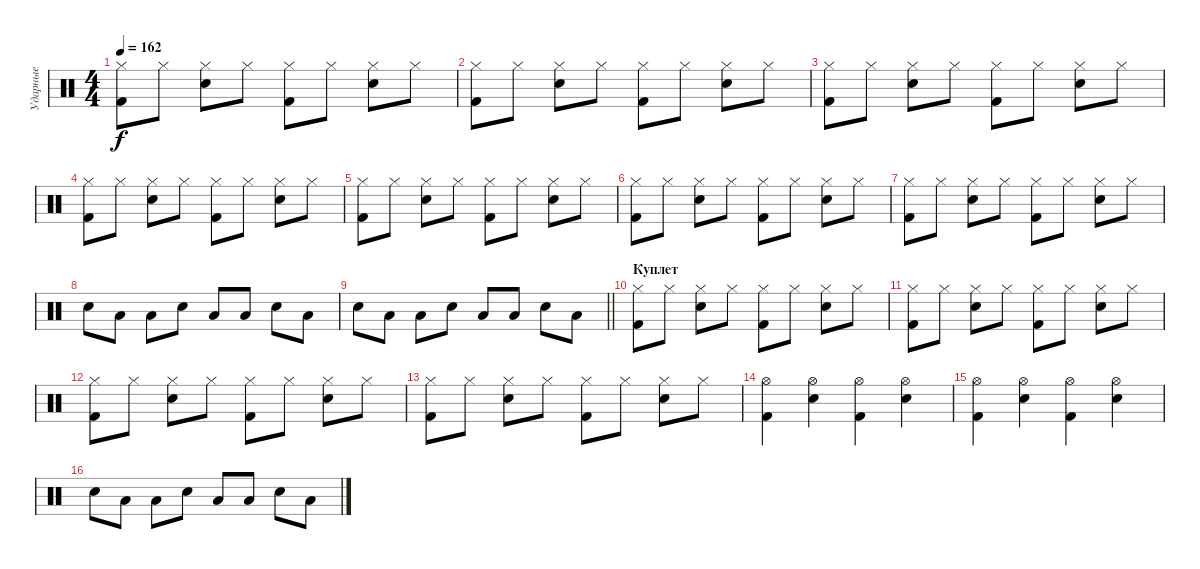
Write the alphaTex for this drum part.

\track ("Ударные" "Ударные") {instrument percussion}
\staff {score}
\articulation defaults
\ts (4 4)
\tempo 162
\clef neutral
\ks c
("Hi-Hat (closed)" "Kick (hit) 2").8{dy f} "Hi-Hat (closed)".8 ("Hi-Hat (closed)" "Snare (hit) 2").8 "Hi-Hat (closed)".8 ("Hi-Hat (closed)" "Kick (hit) 2").8 "Hi-Hat (closed)".8 ("Hi-Hat (closed)" "Snare (hit) 2").8 "Hi-Hat (closed)".8 |
("Hi-Hat (closed)" "Kick (hit) 2").8 "Hi-Hat (closed)".8 ("Hi-Hat (closed)" "Snare (hit) 2").8 "Hi-Hat (closed)".8 ("Hi-Hat (closed)" "Kick (hit) 2").8 "Hi-Hat (closed)".8 ("Hi-Hat (closed)" "Snare (hit) 2").8 "Hi-Hat (closed)".8 |
("Hi-Hat (closed)" "Kick (hit) 2").8 "Hi-Hat (closed)".8 ("Hi-Hat (closed)" "Snare (hit) 2").8 "Hi-Hat (closed)".8 ("Hi-Hat (closed)" "Kick (hit) 2").8 "Hi-Hat (closed)".8 ("Hi-Hat (closed)" "Snare (hit) 2").8 "Hi-Hat (closed)".8 |
("Hi-Hat (closed)" "Kick (hit) 2").8 "Hi-Hat (closed)".8 ("Hi-Hat (closed)" "Snare (hit) 2").8 "Hi-Hat (closed)".8 ("Hi-Hat (closed)" "Kick (hit) 2").8 "Hi-Hat (closed)".8 ("Hi-Hat (closed)" "Snare (hit) 2").8 "Hi-Hat (closed)".8 |
("Hi-Hat (closed)" "Kick (hit) 2").8 "Hi-Hat (closed)".8 ("Hi-Hat (closed)" "Snare (hit) 2").8 "Hi-Hat (closed)".8 ("Hi-Hat (closed)" "Kick (hit) 2").8 "Hi-Hat (closed)".8 ("Hi-Hat (closed)" "Snare (hit) 2").8 "Hi-Hat (closed)".8 |
("Hi-Hat (closed)" "Kick (hit) 2").8 "Hi-Hat (closed)".8 ("Hi-Hat (closed)" "Snare (hit) 2").8 "Hi-Hat (closed)".8 ("Hi-Hat (closed)" "Kick (hit) 2").8 "Hi-Hat (closed)".8 ("Hi-Hat (closed)" "Snare (hit) 2").8 "Hi-Hat (closed)".8 |
("Hi-Hat (closed)" "Kick (hit) 2").8 "Hi-Hat (closed)".8 ("Hi-Hat (closed)" "Snare (hit) 2").8 "Hi-Hat (closed)".8 ("Hi-Hat (closed)" "Kick (hit) 2").8 "Hi-Hat (closed)".8 ("Hi-Hat (closed)" "Snare (hit) 2").8 "Hi-Hat (closed)".8 |
"Snare (hit) 2".8 "Low Floor Tom (hit)".8 "Low Floor Tom (hit)".8 "Snare (hit) 2".8 "Low Floor Tom (hit)".8 "Low Floor Tom (hit)".8 "Snare (hit) 2".8 "Low Floor Tom (hit)".8 |
\barLineRight lightlight "Snare (hit) 2".8 "Low Floor Tom (hit)".8 "Low Floor Tom (hit)".8 "Snare (hit) 2".8 "Low Floor Tom (hit)".8 "Low Floor Tom (hit)".8 "Snare (hit) 2".8 "Low Floor Tom (hit)".8
|
\section ("" "Куплет")
("Hi-Hat (closed)" "Kick (hit) 2").8 "Hi-Hat (closed)".8 ("Hi-Hat (closed)" "Snare (hit) 2").8 "Hi-Hat (closed)".8 ("Hi-Hat (closed)" "Kick (hit) 2").8 "Hi-Hat (closed)".8 ("Hi-Hat (closed)" "Snare (hit) 2").8 "Hi-Hat (closed)".8 |
("Hi-Hat (closed)" "Kick (hit) 2").8 "Hi-Hat (closed)".8 ("Hi-Hat (closed)" "Snare (hit) 2").8 "Hi-Hat (closed)".8 ("Hi-Hat (closed)" "Kick (hit) 2").8 "Hi-Hat (closed)".8 ("Hi-Hat (closed)" "Snare (hit) 2").8 "Hi-Hat (closed)".8 |
("Hi-Hat (closed)" "Kick (hit) 2").8 "Hi-Hat (closed)".8 ("Hi-Hat (closed)" "Snare (hit) 2").8 "Hi-Hat (closed)".8 ("Hi-Hat (closed)" "Kick (hit) 2").8 "Hi-Hat (closed)".8 ("Hi-Hat (closed)" "Snare (hit) 2").8 "Hi-Hat (closed)".8 |
("Hi-Hat (closed)" "Kick (hit) 2").8 "Hi-Hat (closed)".8 ("Hi-Hat (closed)" "Snare (hit) 2").8 "Hi-Hat (closed)".8 ("Hi-Hat (closed)" "Kick (hit) 2").8 "Hi-Hat (closed)".8 ("Hi-Hat (closed)" "Snare (hit) 2").8 "Hi-Hat (closed)".8 |
("Hi-Hat (open)" "Kick (hit) 2").4 ("Hi-Hat (open)" "Snare (hit) 2").4 ("Hi-Hat (open)" "Kick (hit) 2").4 ("Hi-Hat (open)" "Snare (hit) 2").4 |
("Hi-Hat (open)" "Kick (hit) 2").4 ("Hi-Hat (open)" "Snare (hit) 2").4 ("Hi-Hat (open)" "Kick (hit) 2").4 ("Hi-Hat (open)" "Snare (hit) 2").4 |
"Snare (hit) 2".8 "Low Floor Tom (hit)".8 "Low Floor Tom (hit)".8 "Snare (hit) 2".8 "Low Floor Tom (hit)".8 "Low Floor Tom (hit)".8 "Snare (hit) 2".8 "Low Floor Tom (hit)".8
